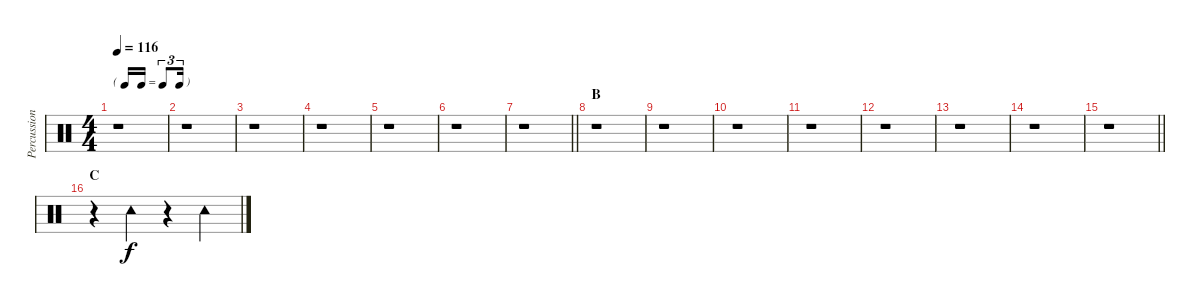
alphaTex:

\track ("Percussion" "Percussion") {instrument percussion}
\staff {score}
\articulation defaults
\ts (4 4)
\tf triplet16th
\tempo 116
\clef neutral
\ks c
r.1{dy f} |
r.1 |
r.1 |
r.1 |
r.1 |
r.1 |
\barLineRight lightlight
r.1 |
\section ("" "B")
r.1 |
r.1 |
r.1 |
r.1 |
r.1 |
r.1 |
r.1 |
\barLineRight lightlight
r.1 |
\section ("" "C")
r.4 "Tambourine (hit)".4 r.4 "Tambourine (hit)".4
